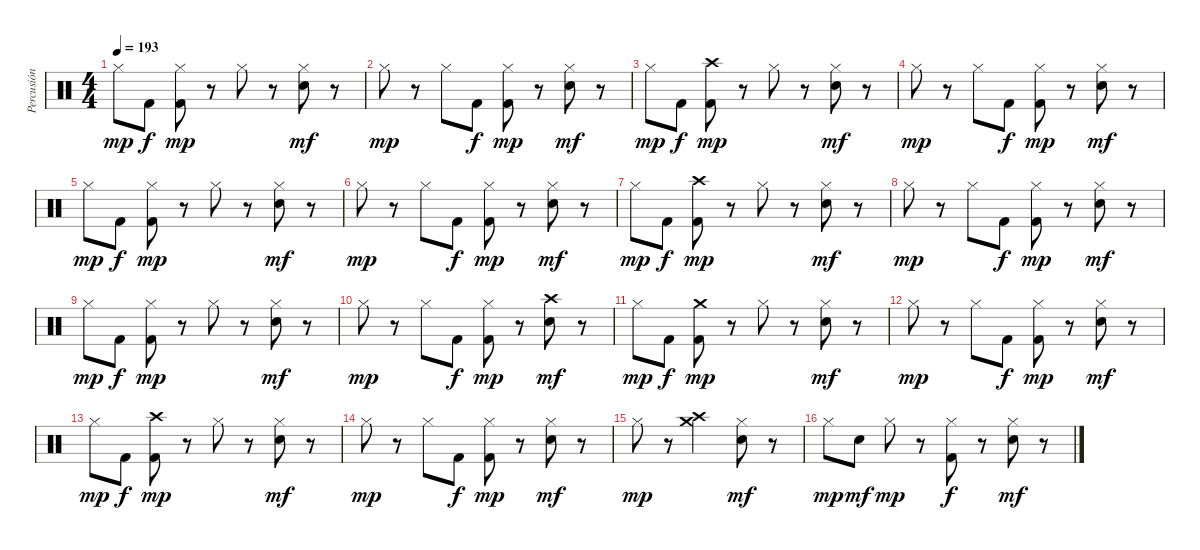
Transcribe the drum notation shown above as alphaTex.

\track ("Percusión" "Percusión") {instrument percussion}
\staff {score}
\articulation defaults
\ts (4 4)
\tempo 193
\clef neutral
\ks c "Hi-Hat (closed)".8{dy mp} "Kick (hit) 2".8{dy f}
("Hi-Hat (closed)" "Kick (hit) 2").8{dy mp} r.8 "Hi-Hat (closed)".8 r.8 ("Hi-Hat (closed)" "Electric Snare (hit)").8{dy mf} r.8 |
"Hi-Hat (closed)".8{dy mp} r.8 "Hi-Hat (closed)".8 "Kick (hit) 2".8{dy f} ("Hi-Hat (closed)" "Kick (hit) 2").8{dy mp} r.8 ("Hi-Hat (closed)" "Electric Snare (hit)").8{dy mf} r.8 |
"Hi-Hat (closed)".8{dy mp} "Kick (hit) 2".8{dy f} ("Crash high (hit)" "Kick (hit) 2").8{dy mp} r.8 "Hi-Hat (closed)".8 r.8 ("Hi-Hat (closed)" "Electric Snare (hit)").8{dy mf} r.8 |
"Hi-Hat (closed)".8{dy mp} r.8 "Hi-Hat (closed)".8 "Kick (hit) 2".8{dy f} ("Hi-Hat (closed)" "Kick (hit) 2").8{dy mp} r.8 ("Hi-Hat (closed)" "Electric Snare (hit)").8{dy mf} r.8 |
"Hi-Hat (closed)".8{dy mp} "Kick (hit) 2".8{dy f} ("Hi-Hat (closed)" "Kick (hit) 2").8{dy mp} r.8 "Hi-Hat (closed)".8 r.8 ("Hi-Hat (closed)" "Electric Snare (hit)").8{dy mf} r.8 |
"Hi-Hat (closed)".8{dy mp} r.8 "Hi-Hat (closed)".8 "Kick (hit) 2".8{dy f} ("Hi-Hat (closed)" "Kick (hit) 2").8{dy mp} r.8 ("Hi-Hat (closed)" "Electric Snare (hit)").8{dy mf} r.8 |
"Hi-Hat (closed)".8{dy mp} "Kick (hit) 2".8{dy f} ("Crash high (hit)" "Kick (hit) 2").8{dy mp} r.8 "Hi-Hat (closed)".8 r.8 ("Hi-Hat (closed)" "Electric Snare (hit)").8{dy mf} r.8 |
"Hi-Hat (closed)".8{dy mp} r.8 "Hi-Hat (closed)".8 "Kick (hit) 2".8{dy f} ("Hi-Hat (closed)" "Kick (hit) 2").8{dy mp} r.8 ("Hi-Hat (closed)" "Electric Snare (hit)").8{dy mf} r.8 |
"Hi-Hat (closed)".8{dy mp} "Kick (hit) 2".8{dy f} ("Hi-Hat (closed)" "Kick (hit) 2").8{dy mp} r.8 "Hi-Hat (closed)".8 r.8 ("Hi-Hat (closed)" "Electric Snare (hit)").8{dy mf} r.8 |
"Hi-Hat (closed)".8{dy mp} r.8 "Hi-Hat (closed)".8 "Kick (hit) 2".8{dy f} ("Hi-Hat (closed)" "Kick (hit) 2").8{dy mp} r.8 ("Crash high (hit)" "Electric Snare (hit)").8{dy mf} r.8 |
"Hi-Hat (closed)".8{dy mp} "Kick (hit) 2".8{dy f} ("Crash medium (hit)" "Kick (hit) 2").8{dy mp} r.8 "Hi-Hat (closed)".8 r.8 ("Hi-Hat (closed)" "Electric Snare (hit)").8{dy mf} r.8 |
"Hi-Hat (closed)".8{dy mp} r.8 "Hi-Hat (closed)".8 "Kick (hit) 2".8{dy f} ("Hi-Hat (closed)" "Kick (hit) 2").8{dy mp} r.8 ("Hi-Hat (closed)" "Electric Snare (hit)").8{dy mf} r.8 |
"Hi-Hat (closed)".8{dy mp} "Kick (hit) 2".8{dy f} ("Crash high (hit)" "Kick (hit) 2").8{dy mp} r.8 "Hi-Hat (closed)".8 r.8 ("Hi-Hat (closed)" "Electric Snare (hit)").8{dy mf} r.8 |
"Hi-Hat (closed)".8{dy mp} r.8 "Hi-Hat (closed)".8 "Kick (hit) 2".8{dy f} ("Hi-Hat (closed)" "Kick (hit) 2").8{dy mp} r.8 ("Hi-Hat (closed)" "Electric Snare (hit)").8{dy mf} r.8 |
"Hi-Hat (closed)".8{dy mp} r.8 ("Crash high (hit)" "Crash medium (hit)").2 ("Hi-Hat (closed)" "Electric Snare (hit)").8{dy mf} r.8 |
"Hi-Hat (closed)".8{dy mp} "Electric Snare (hit)".8{dy mf} "Hi-Hat (closed)".8{dy mp} r.8 ("Hi-Hat (closed)" "Kick (hit) 2").8{dy f} r.8 ("Hi-Hat (closed)" "Electric Snare (hit)").8{dy mf} r.8
